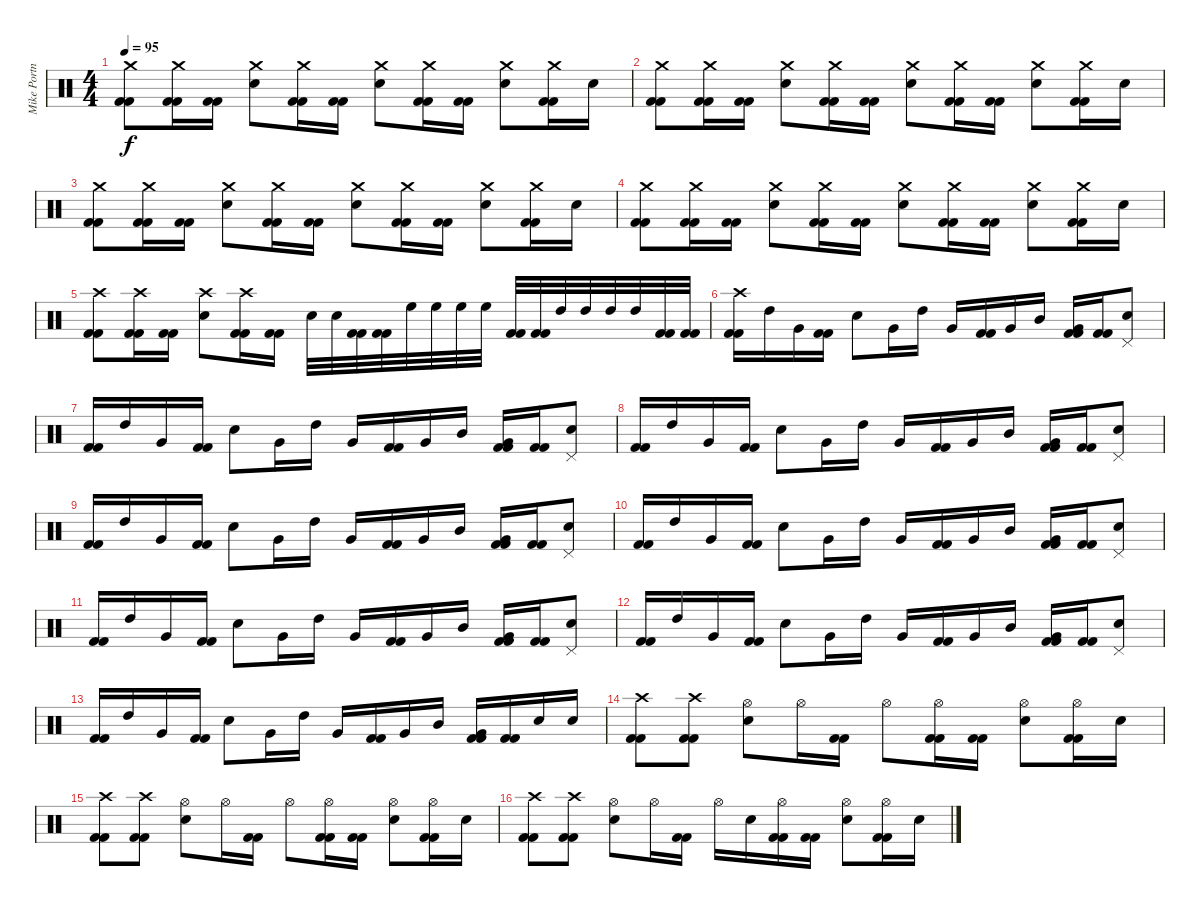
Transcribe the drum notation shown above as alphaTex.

\track ("Mike Portnoy" "Mike Portn") {instrument percussion}
\staff {score}
\articulation defaults
\ts (4 4)
\tempo 95
\clef neutral
\ks c
("Crash medium (hit)" "Kick (hit) 2" "Kick (hit) 2").8{dy f} ("Crash medium (hit)" "Kick (hit) 2" "Kick (hit) 2").16 ("Kick (hit) 2" "Kick (hit) 2").16 ("Crash medium (hit)" "Snare (hit) 2").8 ("Crash medium (hit)" "Kick (hit) 2" "Kick (hit) 2").16 ("Kick (hit) 2" "Kick (hit) 2").16 ("Crash medium (hit)" "Snare (hit) 2").8 ("Crash medium (hit)" "Kick (hit) 2" "Kick (hit) 2").16 ("Kick (hit) 2" "Kick (hit) 2").16 ("Crash medium (hit)" "Snare (hit) 2").8 ("Crash medium (hit)" "Kick (hit) 2" "Kick (hit) 2").16 "Snare (hit) 2".16 |
("Crash medium (hit)" "Kick (hit) 2" "Kick (hit) 2").8 ("Crash medium (hit)" "Kick (hit) 2" "Kick (hit) 2").16 ("Kick (hit) 2" "Kick (hit) 2").16 ("Crash medium (hit)" "Snare (hit) 2").8 ("Crash medium (hit)" "Kick (hit) 2" "Kick (hit) 2").16 ("Kick (hit) 2" "Kick (hit) 2").16 ("Crash medium (hit)" "Snare (hit) 2").8 ("Crash medium (hit)" "Kick (hit) 2" "Kick (hit) 2").16 ("Kick (hit) 2" "Kick (hit) 2").16 ("Crash medium (hit)" "Snare (hit) 2").8 ("Crash medium (hit)" "Kick (hit) 2" "Kick (hit) 2").16 "Snare (hit) 2".16 |
("Crash medium (hit)" "Kick (hit) 2" "Kick (hit) 2").8 ("Crash medium (hit)" "Kick (hit) 2" "Kick (hit) 2").16 ("Kick (hit) 2" "Kick (hit) 2").16 ("Crash medium (hit)" "Snare (hit) 2").8 ("Crash medium (hit)" "Kick (hit) 2" "Kick (hit) 2").16 ("Kick (hit) 2" "Kick (hit) 2").16 ("Crash medium (hit)" "Snare (hit) 2").8 ("Crash medium (hit)" "Kick (hit) 2" "Kick (hit) 2").16 ("Kick (hit) 2" "Kick (hit) 2").16 ("Crash medium (hit)" "Snare (hit) 2").8 ("Crash medium (hit)" "Kick (hit) 2" "Kick (hit) 2").16 "Snare (hit) 2".16 |
("Crash medium (hit)" "Kick (hit) 2" "Kick (hit) 2").8 ("Crash medium (hit)" "Kick (hit) 2" "Kick (hit) 2").16 ("Kick (hit) 2" "Kick (hit) 2").16 ("Crash medium (hit)" "Snare (hit) 2").8 ("Crash medium (hit)" "Kick (hit) 2" "Kick (hit) 2").16 ("Kick (hit) 2" "Kick (hit) 2").16 ("Crash medium (hit)" "Snare (hit) 2").8 ("Crash medium (hit)" "Kick (hit) 2" "Kick (hit) 2").16 ("Kick (hit) 2" "Kick (hit) 2").16 ("Crash medium (hit)" "Snare (hit) 2").8 ("Crash medium (hit)" "Kick (hit) 2" "Kick (hit) 2").16 "Snare (hit) 2".16 |
("Crash high (hit)" "Kick (hit) 2" "Kick (hit) 2").8 ("Crash high (hit)" "Kick (hit) 2" "Kick (hit) 2").16 ("Kick (hit) 2" "Kick (hit) 2").16 ("Crash high (hit)" "Snare (hit) 2").8 ("Crash high (hit)" "Kick (hit) 2" "Kick (hit) 2").16 ("Kick (hit) 2" "Kick (hit) 2").16 "Snare (hit) 2".32 "Snare (hit) 2".32 ("Kick (hit) 2" "Kick (hit) 2").32 ("Kick (hit) 2" "Kick (hit) 2").32 "High Floor Tom (hit)".32 "High Floor Tom (hit)".32 "High Floor Tom (hit)".32 "High Floor Tom (hit)".32 ("Kick (hit) 2" "Kick (hit) 2").32 ("Kick (hit) 2" "Kick (hit) 2").32 "High Tom (hit)".32 "High Tom (hit)".32 "High Tom (hit)".32 "High Tom (hit)".32 ("Kick (hit) 2" "Kick (hit) 2").32 ("Kick (hit) 2" "Kick (hit) 2").32 |
("Crash high (hit)" "Kick (hit) 2" "Kick (hit) 2").16{volume 10} "High Tom (hit)".16 "Very Low Tom (hit)".16 ("Kick (hit) 2" "Kick (hit) 2").16 "Snare (hit) 2".8 "Very Low Tom (hit)".16 "High Tom (hit)".16 "Very Low Tom (hit)".16 ("Kick (hit) 2" "Kick (hit) 2").16 "Very Low Tom (hit)".16 "Mid Tom (hit)".16 ("Very Low Tom (hit)" "Kick (hit) 2" "Kick (hit) 2").16 ("Kick (hit) 2" "Kick (hit) 2").16 ("Pedal Hi-Hat (hit)" "Snare (hit) 2").8 |
("Kick (hit) 2" "Kick (hit) 2").16 "High Tom (hit)".16 "Very Low Tom (hit)".16 ("Kick (hit) 2" "Kick (hit) 2").16 "Snare (hit) 2".8 "Very Low Tom (hit)".16 "High Tom (hit)".16 "Very Low Tom (hit)".16 ("Kick (hit) 2" "Kick (hit) 2").16 "Very Low Tom (hit)".16 "Mid Tom (hit)".16 ("Very Low Tom (hit)" "Kick (hit) 2" "Kick (hit) 2").16 ("Kick (hit) 2" "Kick (hit) 2").16 ("Pedal Hi-Hat (hit)" "Snare (hit) 2").8 |
("Kick (hit) 2" "Kick (hit) 2").16 "High Tom (hit)".16 "Very Low Tom (hit)".16 ("Kick (hit) 2" "Kick (hit) 2").16 "Snare (hit) 2".8 "Very Low Tom (hit)".16 "High Tom (hit)".16 "Very Low Tom (hit)".16 ("Kick (hit) 2" "Kick (hit) 2").16 "Very Low Tom (hit)".16 "Mid Tom (hit)".16 ("Very Low Tom (hit)" "Kick (hit) 2" "Kick (hit) 2").16 ("Kick (hit) 2" "Kick (hit) 2").16 ("Pedal Hi-Hat (hit)" "Snare (hit) 2").8 |
("Kick (hit) 2" "Kick (hit) 2").16 "High Tom (hit)".16 "Very Low Tom (hit)".16 ("Kick (hit) 2" "Kick (hit) 2").16 "Snare (hit) 2".8 "Very Low Tom (hit)".16 "High Tom (hit)".16 "Very Low Tom (hit)".16 ("Kick (hit) 2" "Kick (hit) 2").16 "Very Low Tom (hit)".16 "Mid Tom (hit)".16 ("Very Low Tom (hit)" "Kick (hit) 2" "Kick (hit) 2").16 ("Kick (hit) 2" "Kick (hit) 2").16 ("Pedal Hi-Hat (hit)" "Snare (hit) 2").8 |
("Kick (hit) 2" "Kick (hit) 2").16 "High Tom (hit)".16 "Very Low Tom (hit)".16 ("Kick (hit) 2" "Kick (hit) 2").16 "Snare (hit) 2".8 "Very Low Tom (hit)".16 "High Tom (hit)".16 "Very Low Tom (hit)".16 ("Kick (hit) 2" "Kick (hit) 2").16 "Very Low Tom (hit)".16 "Mid Tom (hit)".16 ("Very Low Tom (hit)" "Kick (hit) 2" "Kick (hit) 2").16 ("Kick (hit) 2" "Kick (hit) 2").16 ("Pedal Hi-Hat (hit)" "Snare (hit) 2").8 |
("Kick (hit) 2" "Kick (hit) 2").16 "High Tom (hit)".16 "Very Low Tom (hit)".16 ("Kick (hit) 2" "Kick (hit) 2").16 "Snare (hit) 2".8 "Very Low Tom (hit)".16 "High Tom (hit)".16 "Very Low Tom (hit)".16 ("Kick (hit) 2" "Kick (hit) 2").16 "Very Low Tom (hit)".16 "Mid Tom (hit)".16 ("Very Low Tom (hit)" "Kick (hit) 2" "Kick (hit) 2").16 ("Kick (hit) 2" "Kick (hit) 2").16 ("Pedal Hi-Hat (hit)" "Snare (hit) 2").8 |
("Kick (hit) 2" "Kick (hit) 2").16 "High Tom (hit)".16 "Very Low Tom (hit)".16 ("Kick (hit) 2" "Kick (hit) 2").16 "Snare (hit) 2".8 "Very Low Tom (hit)".16 "High Tom (hit)".16 "Very Low Tom (hit)".16 ("Kick (hit) 2" "Kick (hit) 2").16 "Very Low Tom (hit)".16 "Mid Tom (hit)".16 ("Very Low Tom (hit)" "Kick (hit) 2" "Kick (hit) 2").16 ("Kick (hit) 2" "Kick (hit) 2").16 ("Pedal Hi-Hat (hit)" "Snare (hit) 2").8 |
("Kick (hit) 2" "Kick (hit) 2").16 "High Tom (hit)".16 "Very Low Tom (hit)".16 ("Kick (hit) 2" "Kick (hit) 2").16 "Snare (hit) 2".8 "Very Low Tom (hit)".16 "High Tom (hit)".16 "Very Low Tom (hit)".16 ("Kick (hit) 2" "Kick (hit) 2").16 "Very Low Tom (hit)".16 "Mid Tom (hit)".16 ("Very Low Tom (hit)" "Kick (hit) 2" "Kick (hit) 2").16 ("Kick (hit) 2" "Kick (hit) 2").16 "Snare (hit) 2".16 "Snare (hit) 2".16 |
("Crash high (hit)" "Kick (hit) 2" "Kick (hit) 2").8{volume 13} ("Crash high (hit)" "Kick (hit) 2" "Kick (hit) 2").8 ("Hi-Hat (open)" "Snare (hit) 2").8 "Hi-Hat (open)".16 ("Kick (hit) 2" "Kick (hit) 2").16 "Hi-Hat (open)".8 ("Hi-Hat (open)" "Kick (hit) 2" "Kick (hit) 2").16 ("Kick (hit) 2" "Kick (hit) 2").16 ("Hi-Hat (open)" "Snare (hit) 2").8 ("Hi-Hat (open)" "Kick (hit) 2" "Kick (hit) 2").16 "Snare (hit) 2".16 |
("Crash high (hit)" "Kick (hit) 2" "Kick (hit) 2").8 ("Crash high (hit)" "Kick (hit) 2" "Kick (hit) 2").8 ("Hi-Hat (open)" "Snare (hit) 2").8 "Hi-Hat (open)".16 ("Kick (hit) 2" "Kick (hit) 2").16 "Hi-Hat (open)".8 ("Hi-Hat (open)" "Kick (hit) 2" "Kick (hit) 2").16 ("Kick (hit) 2" "Kick (hit) 2").16 ("Hi-Hat (open)" "Snare (hit) 2").8 ("Hi-Hat (open)" "Kick (hit) 2" "Kick (hit) 2").16 "Snare (hit) 2".16 |
("Crash high (hit)" "Kick (hit) 2" "Kick (hit) 2").8 ("Crash high (hit)" "Kick (hit) 2" "Kick (hit) 2").8 ("Hi-Hat (open)" "Snare (hit) 2").8 "Hi-Hat (open)".16 ("Kick (hit) 2" "Kick (hit) 2").16 "Hi-Hat (open)".16 "Snare (hit) 2".16 ("Hi-Hat (open)" "Kick (hit) 2" "Kick (hit) 2").16 ("Kick (hit) 2" "Kick (hit) 2").16 ("Hi-Hat (open)" "Snare (hit) 2").8 ("Hi-Hat (open)" "Kick (hit) 2" "Kick (hit) 2").16 "Snare (hit) 2".16
